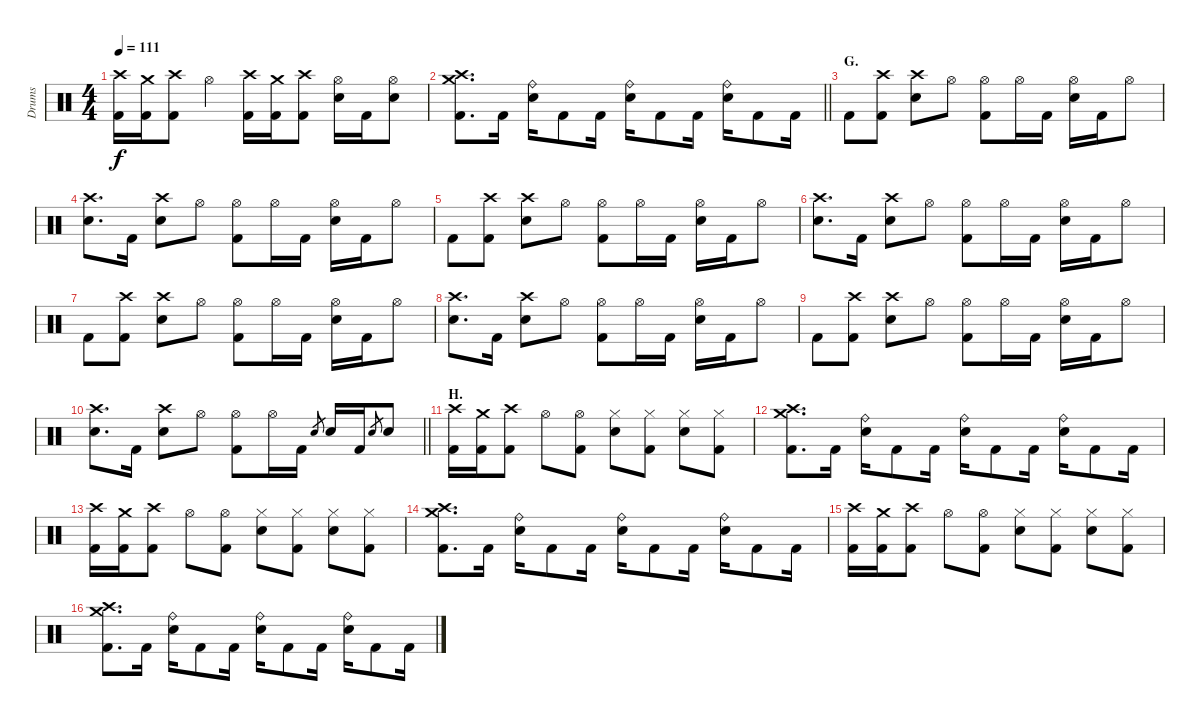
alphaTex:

\track ("Drums" "Drums") {instrument percussion}
\staff {score}
\articulation defaults
\ts (4 4)
\tempo 111
\clef neutral
\ks c
("Crash high (hit)" "Kick (hit) 2").16{dy f} ("Crash medium (hit)" "Kick (hit) 2").16 ("Crash high (hit)" "Kick (hit) 2").8 "Hi-Hat (open)".4 ("Crash high (hit)" "Kick (hit) 2").16 ("Crash medium (hit)" "Kick (hit) 2").16 ("Crash high (hit)" "Kick (hit) 2").8 ("Hi-Hat (open)" "Electric Snare (hit)").16 "Kick (hit) 2".16 ("Hi-Hat (open)" "Electric Snare (hit)").8 |
\barLineRight lightlight
("Crash medium (hit)" "Crash high (hit)" "Kick (hit) 2").8{d} "Kick (hit) 2".16 ("Ride (bell)" "Electric Snare (hit)").16 "Kick (hit) 2".8 "Kick (hit) 2".16 ("Ride (bell)" "Electric Snare (hit)").16 "Kick (hit) 2".8 "Kick (hit) 2".16 ("Ride (bell)" "Electric Snare (hit)").16 "Kick (hit) 2".8 "Kick (hit) 2".16 |
\section ("" "G.")
"Kick (hit) 2".8 ("Crash high (hit)" "Kick (hit) 2").8 ("Crash high (hit)" "Electric Snare (hit)").8 "Hi-Hat (open)".8 ("Hi-Hat (open)" "Kick (hit) 2").8 "Hi-Hat (open)".16 "Kick (hit) 2".16 ("Hi-Hat (open)" "Electric Snare (hit)").16 "Kick (hit) 2".16 "Hi-Hat (open)".8 |
("Crash high (hit)" "Electric Snare (hit)").8{d} "Kick (hit) 2".16 ("Crash high (hit)" "Electric Snare (hit)").8 "Hi-Hat (open)".8 ("Hi-Hat (open)" "Kick (hit) 2").8 "Hi-Hat (open)".16 "Kick (hit) 2".16 ("Hi-Hat (open)" "Electric Snare (hit)").16 "Kick (hit) 2".16 "Hi-Hat (open)".8 |
"Kick (hit) 2".8 ("Crash high (hit)" "Kick (hit) 2").8 ("Crash high (hit)" "Electric Snare (hit)").8 "Hi-Hat (open)".8 ("Hi-Hat (open)" "Kick (hit) 2").8 "Hi-Hat (open)".16 "Kick (hit) 2".16 ("Hi-Hat (open)" "Electric Snare (hit)").16 "Kick (hit) 2".16 "Hi-Hat (open)".8 |
("Crash high (hit)" "Electric Snare (hit)").8{d} "Kick (hit) 2".16 ("Crash high (hit)" "Electric Snare (hit)").8 "Hi-Hat (open)".8 ("Hi-Hat (open)" "Kick (hit) 2").8 "Hi-Hat (open)".16 "Kick (hit) 2".16 ("Hi-Hat (open)" "Electric Snare (hit)").16 "Kick (hit) 2".16 "Hi-Hat (open)".8 |
"Kick (hit) 2".8 ("Crash high (hit)" "Kick (hit) 2").8 ("Crash high (hit)" "Electric Snare (hit)").8 "Hi-Hat (open)".8 ("Hi-Hat (open)" "Kick (hit) 2").8 "Hi-Hat (open)".16 "Kick (hit) 2".16 ("Hi-Hat (open)" "Electric Snare (hit)").16 "Kick (hit) 2".16 "Hi-Hat (open)".8 |
("Crash high (hit)" "Electric Snare (hit)").8{d} "Kick (hit) 2".16 ("Crash high (hit)" "Electric Snare (hit)").8 "Hi-Hat (open)".8 ("Hi-Hat (open)" "Kick (hit) 2").8 "Hi-Hat (open)".16 "Kick (hit) 2".16 ("Hi-Hat (open)" "Electric Snare (hit)").16 "Kick (hit) 2".16 "Hi-Hat (open)".8 |
"Kick (hit) 2".8 ("Crash high (hit)" "Kick (hit) 2").8 ("Crash high (hit)" "Electric Snare (hit)").8 "Hi-Hat (open)".8 ("Hi-Hat (open)" "Kick (hit) 2").8 "Hi-Hat (open)".16 "Kick (hit) 2".16 ("Hi-Hat (open)" "Electric Snare (hit)").16 "Kick (hit) 2".16 "Hi-Hat (open)".8 |
\barLineRight lightlight
("Crash high (hit)" "Electric Snare (hit)").8{d} "Kick (hit) 2".16 ("Crash high (hit)" "Electric Snare (hit)").8 "Hi-Hat (open)".8 ("Hi-Hat (open)" "Kick (hit) 2").8 "Hi-Hat (open)".16 "Kick (hit) 2".16 "Electric Snare (hit)".8{gr} "Electric Snare (hit)".16 "Kick (hit) 2".16 "Electric Snare (hit)".8{gr} "Electric Snare (hit)".8 |
\section ("" "H.")
("Crash high (hit)" "Kick (hit) 2").16 ("Crash medium (hit)" "Kick (hit) 2").16 ("Crash high (hit)" "Kick (hit) 2").8 "Hi-Hat (open)".8 ("Hi-Hat (open)" "Kick (hit) 2").8 ("Hi-Hat (closed)" "Electric Snare (hit)").8 ("Hi-Hat (closed)" "Kick (hit) 2").8 ("Hi-Hat (closed)" "Electric Snare (hit)").8 ("Hi-Hat (closed)" "Kick (hit) 2").8 |
("Crash medium (hit)" "Crash high (hit)" "Kick (hit) 2").8{d} "Kick (hit) 2".16 ("Ride (bell)" "Electric Snare (hit)").16 "Kick (hit) 2".8 "Kick (hit) 2".16 ("Ride (bell)" "Electric Snare (hit)").16 "Kick (hit) 2".8 "Kick (hit) 2".16 ("Ride (bell)" "Electric Snare (hit)").16 "Kick (hit) 2".8 "Kick (hit) 2".16 |
("Crash high (hit)" "Kick (hit) 2").16 ("Crash medium (hit)" "Kick (hit) 2").16 ("Crash high (hit)" "Kick (hit) 2").8 "Hi-Hat (open)".8 ("Hi-Hat (open)" "Kick (hit) 2").8 ("Hi-Hat (closed)" "Electric Snare (hit)").8 ("Hi-Hat (closed)" "Kick (hit) 2").8 ("Hi-Hat (closed)" "Electric Snare (hit)").8 ("Hi-Hat (closed)" "Kick (hit) 2").8 |
("Crash medium (hit)" "Crash high (hit)" "Kick (hit) 2").8{d} "Kick (hit) 2".16 ("Ride (bell)" "Electric Snare (hit)").16 "Kick (hit) 2".8 "Kick (hit) 2".16 ("Ride (bell)" "Electric Snare (hit)").16 "Kick (hit) 2".8 "Kick (hit) 2".16 ("Ride (bell)" "Electric Snare (hit)").16 "Kick (hit) 2".8 "Kick (hit) 2".16 |
("Crash high (hit)" "Kick (hit) 2").16 ("Crash medium (hit)" "Kick (hit) 2").16 ("Crash high (hit)" "Kick (hit) 2").8 "Hi-Hat (open)".8 ("Hi-Hat (open)" "Kick (hit) 2").8 ("Hi-Hat (closed)" "Electric Snare (hit)").8 ("Hi-Hat (closed)" "Kick (hit) 2").8 ("Hi-Hat (closed)" "Electric Snare (hit)").8 ("Hi-Hat (closed)" "Kick (hit) 2").8 |
("Crash medium (hit)" "Crash high (hit)" "Kick (hit) 2").8{d} "Kick (hit) 2".16 ("Ride (bell)" "Electric Snare (hit)").16 "Kick (hit) 2".8 "Kick (hit) 2".16 ("Ride (bell)" "Electric Snare (hit)").16 "Kick (hit) 2".8 "Kick (hit) 2".16 ("Ride (bell)" "Electric Snare (hit)").16 "Kick (hit) 2".8 "Kick (hit) 2".16
